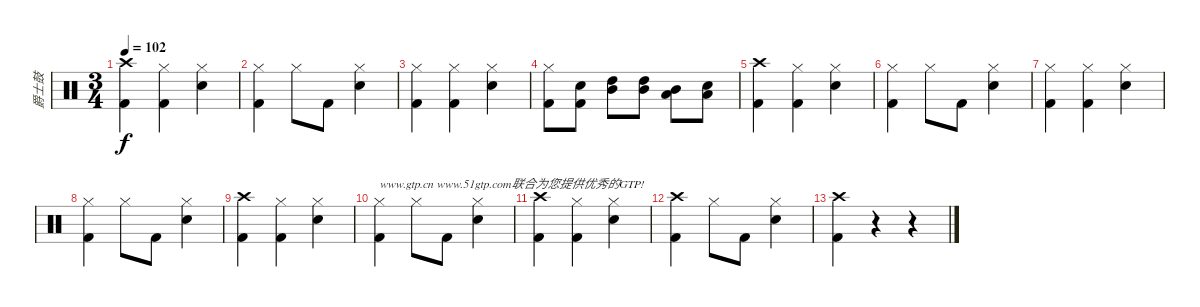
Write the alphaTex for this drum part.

\track ("爵士鼓" "爵士鼓") {instrument percussion}
\staff {score}
\articulation defaults
\ts (3 4)
\tempo 102
\clef neutral
\ks c
("Crash high (hit)" "Kick (hit) 2").4{dy f} ("Hi-Hat (closed)" "Kick (hit) 2").4 ("Hi-Hat (closed)" "Electric Snare (hit)").4 |
("Hi-Hat (closed)" "Kick (hit) 2").4 "Hi-Hat (closed)".8 "Kick (hit) 2".8 ("Hi-Hat (closed)" "Electric Snare (hit)").4 |
("Hi-Hat (closed)" "Kick (hit) 2").4 ("Hi-Hat (closed)" "Kick (hit) 2").4 ("Hi-Hat (closed)" "Electric Snare (hit)").4 |
("Hi-Hat (closed)" "Kick (hit) 2").8 ("Electric Snare (hit)" "Kick (hit) 2").8 ("High Tom (hit)" "Mid Tom (hit)").8 ("High Tom (hit)" "Mid Tom (hit)").8 ("Mid Tom (hit)" "Low Tom (hit)").8 ("Electric Snare (hit)" "Low Tom (hit)").8 |
("Crash high (hit)" "Kick (hit) 2").4 ("Hi-Hat (closed)" "Kick (hit) 2").4 ("Hi-Hat (closed)" "Electric Snare (hit)").4 |
("Hi-Hat (closed)" "Kick (hit) 2").4 "Hi-Hat (closed)".8 "Kick (hit) 2".8 ("Hi-Hat (closed)" "Electric Snare (hit)").4 |
("Hi-Hat (closed)" "Kick (hit) 2").4 ("Hi-Hat (closed)" "Kick (hit) 2").4 ("Hi-Hat (closed)" "Electric Snare (hit)").4 |
("Hi-Hat (closed)" "Kick (hit) 2").4 "Hi-Hat (closed)".8 "Kick (hit) 2".8 ("Hi-Hat (closed)" "Electric Snare (hit)").4 |
("Crash high (hit)" "Kick (hit) 2").4 ("Hi-Hat (closed)" "Kick (hit) 2").4 ("Hi-Hat (closed)" "Electric Snare (hit)").4 |
("Hi-Hat (closed)" "Kick (hit) 2").4{txt "www.gtp.cn www.51gtp.com联合为您提供优秀的GTP!"} "Hi-Hat (closed)".8 "Kick (hit) 2".8 ("Hi-Hat (closed)" "Electric Snare (hit)").4 |
("Crash high (hit)" "Kick (hit) 2").4 ("Hi-Hat (closed)" "Kick (hit) 2").4 ("Hi-Hat (closed)" "Electric Snare (hit)").4 |
("Crash high (hit)" "Kick (hit) 2").4 "Hi-Hat (closed)".8 "Kick (hit) 2".8 ("Hi-Hat (closed)" "Electric Snare (hit)").4 |
("Crash high (hit)" "Kick (hit) 2").4 r.4 r.4
